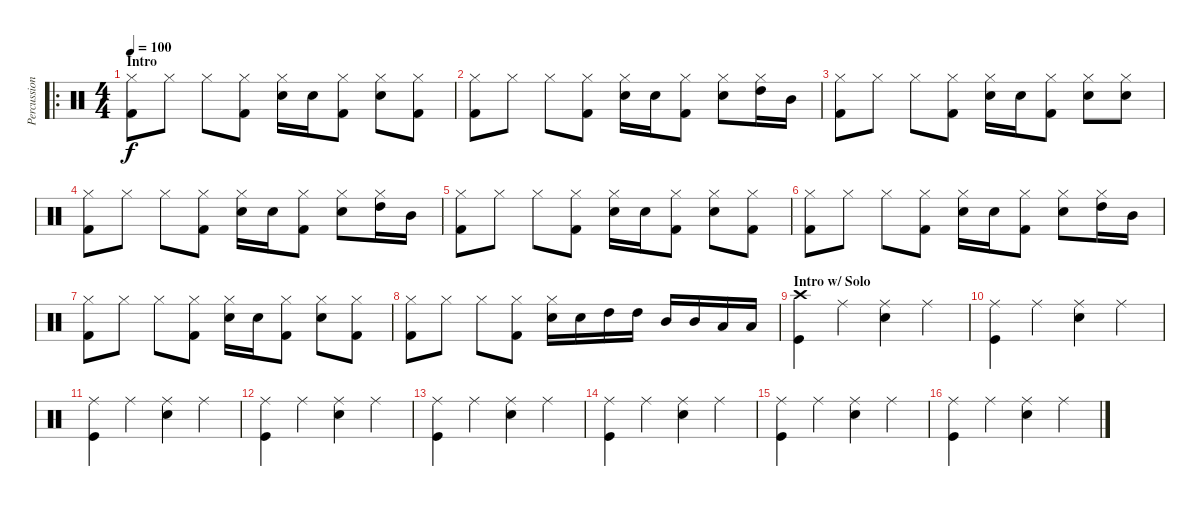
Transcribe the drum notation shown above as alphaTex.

\track ("Percussion" "Percussion") {instrument percussion}
\staff {score}
\articulation defaults
\ro
\ts (4 4)
\section ("" "Intro")
\tempo 100
\clef neutral
\ks c
("Hi-Hat (closed)" "Kick (hit) 2").8{dy f} "Hi-Hat (closed)".8 "Hi-Hat (closed)".8 ("Hi-Hat (closed)" "Kick (hit) 2").8 ("Hi-Hat (closed)" "Snare (hit) 2").16 "Snare (hit) 2".16 ("Hi-Hat (closed)" "Kick (hit) 2").8 ("Hi-Hat (closed)" "Snare (hit) 2").8 ("Hi-Hat (closed)" "Kick (hit) 2").8 |
("Hi-Hat (closed)" "Kick (hit) 2").8 "Hi-Hat (closed)".8 "Hi-Hat (closed)".8 ("Hi-Hat (closed)" "Kick (hit) 2").8 ("Hi-Hat (closed)" "Snare (hit) 2").16 "Snare (hit) 2".16 ("Hi-Hat (closed)" "Kick (hit) 2").8 ("Hi-Hat (closed)" "Snare (hit) 2").8 ("Hi-Hat (closed)" "High Tom (hit)").16 "Mid Tom (hit)".16 |
("Hi-Hat (closed)" "Kick (hit) 2").8 "Hi-Hat (closed)".8 "Hi-Hat (closed)".8 ("Hi-Hat (closed)" "Kick (hit) 2").8 ("Hi-Hat (closed)" "Snare (hit) 2").16 "Snare (hit) 2".16 ("Hi-Hat (closed)" "Kick (hit) 2").8 ("Hi-Hat (closed)" "Snare (hit) 2").8 ("Hi-Hat (closed)" "Snare (hit) 2").8 |
("Hi-Hat (closed)" "Kick (hit) 2").8 "Hi-Hat (closed)".8 "Hi-Hat (closed)".8 ("Hi-Hat (closed)" "Kick (hit) 2").8 ("Hi-Hat (closed)" "Snare (hit) 2").16 "Snare (hit) 2".16 ("Hi-Hat (closed)" "Kick (hit) 2").8 ("Hi-Hat (closed)" "Snare (hit) 2").8 ("Hi-Hat (closed)" "High Tom (hit)").16 "Mid Tom (hit)".16 |
("Hi-Hat (closed)" "Kick (hit) 2").8 "Hi-Hat (closed)".8 "Hi-Hat (closed)".8 ("Hi-Hat (closed)" "Kick (hit) 2").8 ("Hi-Hat (closed)" "Snare (hit) 2").16 "Snare (hit) 2".16 ("Hi-Hat (closed)" "Kick (hit) 2").8 ("Hi-Hat (closed)" "Snare (hit) 2").8 ("Hi-Hat (closed)" "Kick (hit) 2").8 |
("Hi-Hat (closed)" "Kick (hit) 2").8 "Hi-Hat (closed)".8 "Hi-Hat (closed)".8 ("Hi-Hat (closed)" "Kick (hit) 2").8 ("Hi-Hat (closed)" "Snare (hit) 2").16 "Snare (hit) 2".16 ("Hi-Hat (closed)" "Kick (hit) 2").8 ("Hi-Hat (closed)" "Snare (hit) 2").8 ("Hi-Hat (closed)" "High Tom (hit)").16 "Mid Tom (hit)".16 |
("Hi-Hat (closed)" "Kick (hit) 2").8 "Hi-Hat (closed)".8 "Hi-Hat (closed)".8 ("Hi-Hat (closed)" "Kick (hit) 2").8 ("Hi-Hat (closed)" "Snare (hit) 2").16 "Snare (hit) 2".16 ("Hi-Hat (closed)" "Kick (hit) 2").8 ("Hi-Hat (closed)" "Snare (hit) 2").8 ("Hi-Hat (closed)" "Kick (hit) 2").8 |
("Hi-Hat (closed)" "Kick (hit) 2").8 "Hi-Hat (closed)".8 "Hi-Hat (closed)".8 ("Hi-Hat (closed)" "Kick (hit) 2").8 ("Hi-Hat (closed)" "Snare (hit) 2").16 "Snare (hit) 2".16 "High Tom (hit)".16 "High Tom (hit)".16 "Mid Tom (hit)".16 "Mid Tom (hit)".16 "Low Tom (hit)".16 "Low Tom (hit)".16 |
\section ("" "Intro w/ Solo")
("Crash high (hit)" "Kick (hit)").4 "Ride (middle)".4 ("Ride (middle)" "Snare (hit) 2").4 "Ride (middle)".4 |
("Ride (middle)" "Kick (hit)").4 "Ride (middle)".4 ("Ride (middle)" "Snare (hit) 2").4 "Ride (middle)".4 |
("Ride (middle)" "Kick (hit)").4 "Ride (middle)".4 ("Ride (middle)" "Snare (hit) 2").4 "Ride (middle)".4 |
("Ride (middle)" "Kick (hit)").4 "Ride (middle)".4 ("Ride (middle)" "Snare (hit) 2").4 "Ride (middle)".4 |
("Ride (middle)" "Kick (hit)").4 "Ride (middle)".4 ("Ride (middle)" "Snare (hit) 2").4 "Ride (middle)".4 |
("Ride (middle)" "Kick (hit)").4 "Ride (middle)".4 ("Ride (middle)" "Snare (hit) 2").4 "Ride (middle)".4 |
("Ride (middle)" "Kick (hit)").4 "Ride (middle)".4 ("Ride (middle)" "Snare (hit) 2").4 "Ride (middle)".4 |
("Ride (middle)" "Kick (hit)").4 "Ride (middle)".4 ("Ride (middle)" "Snare (hit) 2").4 "Ride (middle)".4
